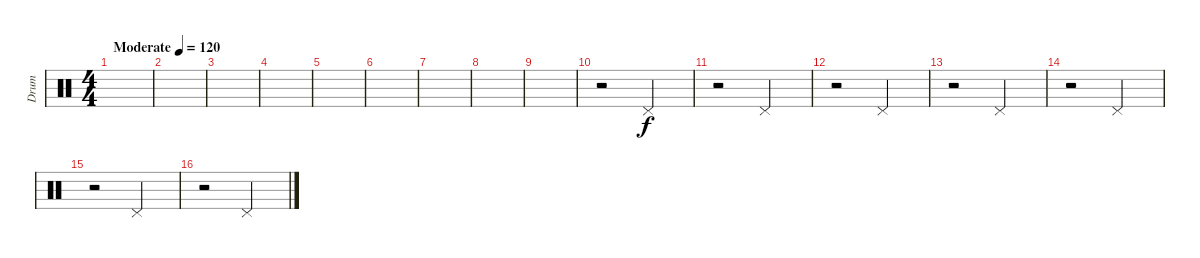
\track ("Drum" "Drum") {instrument percussion}
\staff {score}
\articulation defaults
\ts (4 4)
\tempo (120 "Moderate")
\clef neutral
\ks c
|
|
|
|
|
|
|
|
|
r.2 "Pedal Hi-Hat (hit)".2 |
r.2 "Pedal Hi-Hat (hit)".2 |
r.2 "Pedal Hi-Hat (hit)".2 |
r.2 "Pedal Hi-Hat (hit)".2 |
r.2 "Pedal Hi-Hat (hit)".2 |
r.2 "Pedal Hi-Hat (hit)".2 |
r.2 "Pedal Hi-Hat (hit)".2
